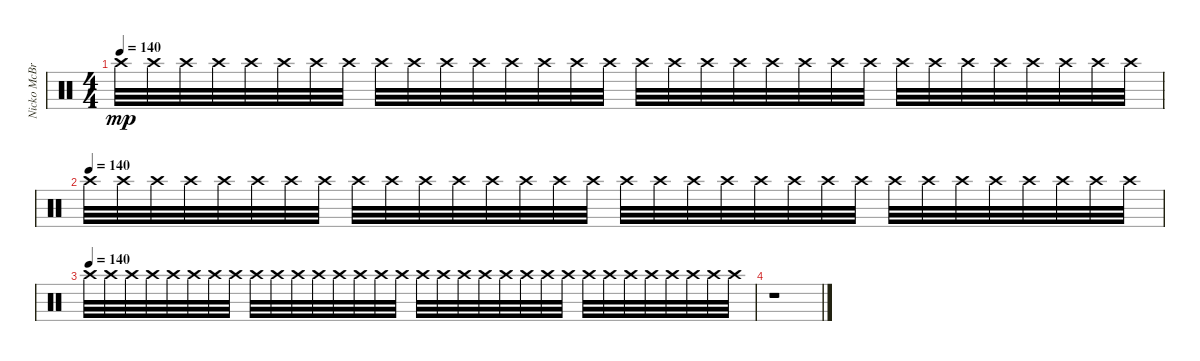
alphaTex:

\track ("Nicko McBrain" "Nicko McBr") {instrument percussion}
\staff {score}
\articulation defaults
\ts (4 4)
\tempo 140
\clef neutral
\ks c "Crash high (hit)".32{dy mp volume 11} "Crash high (hit)".32 "Crash high (hit)".32 "Crash high (hit)".32 "Crash high (hit)".32 "Crash high (hit)".32 "Crash high (hit)".32 "Crash high (hit)".32 "Crash high (hit)".32 "Crash high (hit)".32 "Crash high (hit)".32 "Crash high (hit)".32 "Crash high (hit)".32 "Crash high (hit)".32 "Crash high (hit)".32 "Crash high (hit)".32 "Crash high (hit)".32 "Crash high (hit)".32 "Crash high (hit)".32 "Crash high (hit)".32 "Crash high (hit)".32 "Crash high (hit)".32 "Crash high (hit)".32 "Crash high (hit)".32 "Crash high (hit)".32 "Crash high (hit)".32 "Crash high (hit)".32 "Crash high (hit)".32 "Crash high (hit)".32 "Crash high (hit)".32 "Crash high (hit)".32 "Crash high (hit)".32
|
\tempo (140)
"Crash high (hit)".32{volume 11} "Crash high (hit)".32 "Crash high (hit)".32 "Crash high (hit)".32 "Crash high (hit)".32 "Crash high (hit)".32 "Crash high (hit)".32 "Crash high (hit)".32 "Crash high (hit)".32 "Crash high (hit)".32 "Crash high (hit)".32 "Crash high (hit)".32 "Crash high (hit)".32 "Crash high (hit)".32 "Crash high (hit)".32 "Crash high (hit)".32 "Crash high (hit)".32 "Crash high (hit)".32 "Crash high (hit)".32 "Crash high (hit)".32 "Crash high (hit)".32 "Crash high (hit)".32 "Crash high (hit)".32 "Crash high (hit)".32 "Crash high (hit)".32 "Crash high (hit)".32 "Crash high (hit)".32 "Crash high (hit)".32 "Crash high (hit)".32 "Crash high (hit)".32 "Crash high (hit)".32 "Crash high (hit)".32 |
\tempo (140)
"Crash high (hit)".32{volume 11} "Crash high (hit)".32 "Crash high (hit)".32 "Crash high (hit)".32 "Crash high (hit)".32 "Crash high (hit)".32 "Crash high (hit)".32 "Crash high (hit)".32 "Crash high (hit)".32 "Crash high (hit)".32 "Crash high (hit)".32 "Crash high (hit)".32 "Crash high (hit)".32 "Crash high (hit)".32 "Crash high (hit)".32 "Crash high (hit)".32 "Crash high (hit)".32 "Crash high (hit)".32 "Crash high (hit)".32 "Crash high (hit)".32 "Crash high (hit)".32 "Crash high (hit)".32 "Crash high (hit)".32 "Crash high (hit)".32 "Crash high (hit)".32 "Crash high (hit)".32 "Crash high (hit)".32 "Crash high (hit)".32 "Crash high (hit)".32 "Crash high (hit)".32 "Crash high (hit)".32 "Crash high (hit)".32 |
r.1
